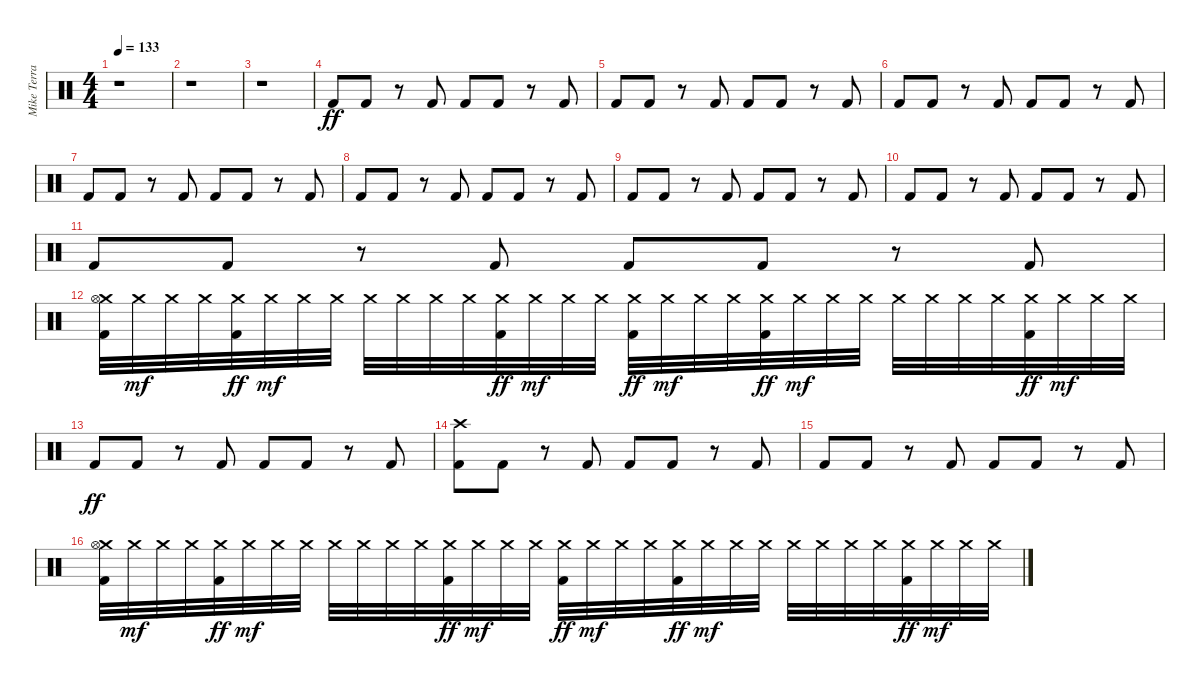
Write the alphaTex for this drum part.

\track ("Mike Terrana" "Mike Terra") {instrument percussion}
\staff {score}
\articulation defaults
\ts (4 4)
\tempo 133
\clef neutral
\ks c
r.1{dy ff} |
\section ("" "")
r.1 |
r.1 |
"Kick (hit) 2".8 "Kick (hit) 2".8 r.8 "Kick (hit) 2".8 "Kick (hit) 2".8 "Kick (hit) 2".8 r.8 "Kick (hit) 2".8 |
"Kick (hit) 2".8 "Kick (hit) 2".8 r.8 "Kick (hit) 2".8 "Kick (hit) 2".8 "Kick (hit) 2".8 r.8 "Kick (hit) 2".8 |
"Kick (hit) 2".8 "Kick (hit) 2".8 r.8 "Kick (hit) 2".8 "Kick (hit) 2".8 "Kick (hit) 2".8 r.8 "Kick (hit) 2".8 |
"Kick (hit) 2".8 "Kick (hit) 2".8 r.8 "Kick (hit) 2".8 "Kick (hit) 2".8 "Kick (hit) 2".8 r.8 "Kick (hit) 2".8 |
"Kick (hit) 2".8 "Kick (hit) 2".8 r.8 "Kick (hit) 2".8 "Kick (hit) 2".8 "Kick (hit) 2".8 r.8 "Kick (hit) 2".8 |
"Kick (hit) 2".8 "Kick (hit) 2".8 r.8 "Kick (hit) 2".8 "Kick (hit) 2".8 "Kick (hit) 2".8 r.8 "Kick (hit) 2".8 |
"Kick (hit) 2".8 "Kick (hit) 2".8 r.8 "Kick (hit) 2".8 "Kick (hit) 2".8 "Kick (hit) 2".8 r.8 "Kick (hit) 2".8 |
"Kick (hit) 2".8 "Kick (hit) 2".8 r.8 "Kick (hit) 2".8 "Kick (hit) 2".8 "Kick (hit) 2".8 r.8 "Kick (hit) 2".8 |
("Crash medium (hit)" "Hi-Hat (open)" "Kick (hit) 2").32 "Crash medium (hit)".32{dy mf} "Crash medium (hit)".32 "Crash medium (hit)".32 ("Crash medium (hit)" "Kick (hit) 2").32{dy ff} "Crash medium (hit)".32{dy mf} "Crash medium (hit)".32 "Crash medium (hit)".32 "Crash medium (hit)".32 "Crash medium (hit)".32 "Crash medium (hit)".32 "Crash medium (hit)".32 ("Crash medium (hit)" "Kick (hit) 2").32{dy ff} "Crash medium (hit)".32{dy mf} "Crash medium (hit)".32 "Crash medium (hit)".32 ("Crash medium (hit)" "Kick (hit) 2").32{dy ff} "Crash medium (hit)".32{dy mf} "Crash medium (hit)".32 "Crash medium (hit)".32 ("Crash medium (hit)" "Kick (hit) 2").32{dy ff} "Crash medium (hit)".32{dy mf} "Crash medium (hit)".32 "Crash medium (hit)".32 "Crash medium (hit)".32 "Crash medium (hit)".32 "Crash medium (hit)".32 "Crash medium (hit)".32 ("Crash medium (hit)" "Kick (hit) 2").32{dy ff} "Crash medium (hit)".32{dy mf} "Crash medium (hit)".32 "Crash medium (hit)".32 |
"Kick (hit) 2".8{dy ff} "Kick (hit) 2".8 r.8 "Kick (hit) 2".8 "Kick (hit) 2".8 "Kick (hit) 2".8 r.8 "Kick (hit) 2".8 |
("Crash high (hit)" "Kick (hit) 2").8 "Kick (hit) 2".8 r.8 "Kick (hit) 2".8 "Kick (hit) 2".8 "Kick (hit) 2".8 r.8 "Kick (hit) 2".8 |
"Kick (hit) 2".8 "Kick (hit) 2".8 r.8 "Kick (hit) 2".8 "Kick (hit) 2".8 "Kick (hit) 2".8 r.8 "Kick (hit) 2".8 |
("Crash medium (hit)" "Hi-Hat (open)" "Kick (hit) 2").32 "Crash medium (hit)".32{dy mf} "Crash medium (hit)".32 "Crash medium (hit)".32 ("Crash medium (hit)" "Kick (hit) 2").32{dy ff} "Crash medium (hit)".32{dy mf} "Crash medium (hit)".32 "Crash medium (hit)".32 "Crash medium (hit)".32 "Crash medium (hit)".32 "Crash medium (hit)".32 "Crash medium (hit)".32 ("Crash medium (hit)" "Kick (hit) 2").32{dy ff} "Crash medium (hit)".32{dy mf} "Crash medium (hit)".32 "Crash medium (hit)".32 ("Crash medium (hit)" "Kick (hit) 2").32{dy ff} "Crash medium (hit)".32{dy mf} "Crash medium (hit)".32 "Crash medium (hit)".32 ("Crash medium (hit)" "Kick (hit) 2").32{dy ff} "Crash medium (hit)".32{dy mf} "Crash medium (hit)".32 "Crash medium (hit)".32 "Crash medium (hit)".32 "Crash medium (hit)".32 "Crash medium (hit)".32 "Crash medium (hit)".32 ("Crash medium (hit)" "Kick (hit) 2").32{dy ff} "Crash medium (hit)".32{dy mf} "Crash medium (hit)".32 "Crash medium (hit)".32
